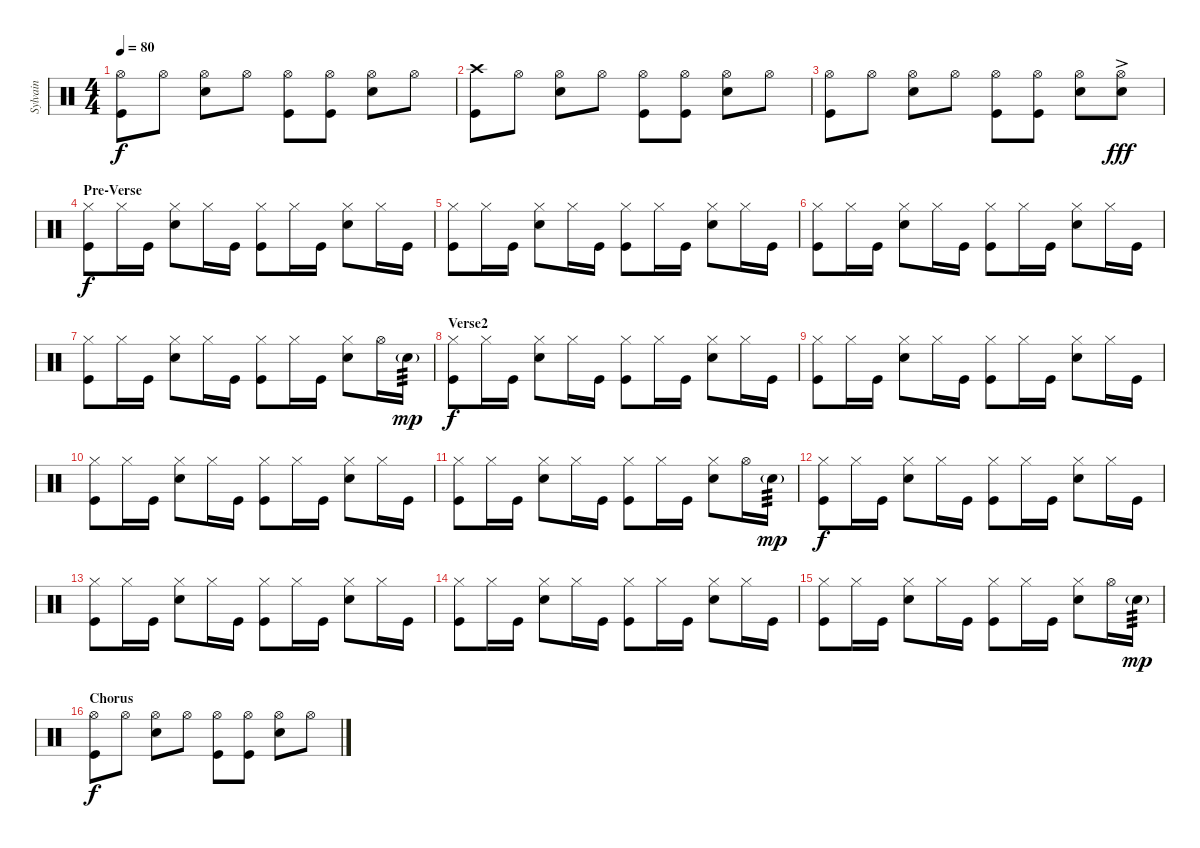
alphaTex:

\track ("Sylvain" "Sylvain") {instrument percussion}
\staff {score}
\articulation defaults
\ts (4 4)
\tempo 80
\clef neutral
\ks c
("Hi-Hat (open)" "Kick (hit)").8{dy f} "Hi-Hat (open)".8 ("Hi-Hat (open)" "Electric Snare (hit)").8 "Hi-Hat (open)".8 ("Hi-Hat (open)" "Kick (hit)").8 ("Hi-Hat (open)" "Kick (hit)").8 ("Hi-Hat (open)" "Electric Snare (hit)").8 "Hi-Hat (open)".8 |
("Crash high (hit)" "Kick (hit)").8 "Hi-Hat (open)".8 ("Hi-Hat (open)" "Electric Snare (hit)").8 "Hi-Hat (open)".8 ("Hi-Hat (open)" "Kick (hit)").8 ("Hi-Hat (open)" "Kick (hit)").8 ("Hi-Hat (open)" "Electric Snare (hit)").8 "Hi-Hat (open)".8 |
("Hi-Hat (open)" "Kick (hit)").8 "Hi-Hat (open)".8 ("Hi-Hat (open)" "Electric Snare (hit)").8 "Hi-Hat (open)".8 ("Hi-Hat (open)" "Kick (hit)").8 ("Hi-Hat (open)" "Kick (hit)").8 ("Hi-Hat (open)" "Electric Snare (hit)").8 ("Hi-Hat (open)" "Electric Snare (hit)"{ac}).8{dy fff} |
\section ("" "Pre-Verse")
("Hi-Hat (closed)" "Kick (hit)").8{dy f} "Hi-Hat (closed)".16 "Kick (hit)".16 ("Hi-Hat (closed)" "Electric Snare (hit)").8 "Hi-Hat (closed)".16 "Kick (hit)".16 ("Hi-Hat (closed)" "Kick (hit)").8 "Hi-Hat (closed)".16 "Kick (hit)".16 ("Hi-Hat (closed)" "Electric Snare (hit)").8 "Hi-Hat (closed)".16 "Kick (hit)".16 |
("Hi-Hat (closed)" "Kick (hit)").8 "Hi-Hat (closed)".16 "Kick (hit)".16 ("Hi-Hat (closed)" "Electric Snare (hit)").8 "Hi-Hat (closed)".16 "Kick (hit)".16 ("Hi-Hat (closed)" "Kick (hit)").8 "Hi-Hat (closed)".16 "Kick (hit)".16 ("Hi-Hat (closed)" "Electric Snare (hit)").8 "Hi-Hat (closed)".16 "Kick (hit)".16 |
("Hi-Hat (closed)" "Kick (hit)").8 "Hi-Hat (closed)".16 "Kick (hit)".16 ("Hi-Hat (closed)" "Electric Snare (hit)").8 "Hi-Hat (closed)".16 "Kick (hit)".16 ("Hi-Hat (closed)" "Kick (hit)").8 "Hi-Hat (closed)".16 "Kick (hit)".16 ("Hi-Hat (closed)" "Electric Snare (hit)").8 "Hi-Hat (closed)".16 "Kick (hit)".16 |
("Hi-Hat (closed)" "Kick (hit)").8 "Hi-Hat (closed)".16 "Kick (hit)".16 ("Hi-Hat (closed)" "Electric Snare (hit)").8 "Hi-Hat (closed)".16 "Kick (hit)".16 ("Hi-Hat (closed)" "Kick (hit)").8 "Hi-Hat (closed)".16 "Kick (hit)".16 ("Hi-Hat (closed)" "Electric Snare (hit)").8 "Hi-Hat (open)".16 "Electric Snare (hit)"{g}.16{tp 3 dy mp} |
\section ("" "Verse2")
("Hi-Hat (closed)" "Kick (hit)").8{dy f} "Hi-Hat (closed)".16 "Kick (hit)".16 ("Hi-Hat (closed)" "Electric Snare (hit)").8 "Hi-Hat (closed)".16 "Kick (hit)".16 ("Hi-Hat (closed)" "Kick (hit)").8 "Hi-Hat (closed)".16 "Kick (hit)".16 ("Hi-Hat (closed)" "Electric Snare (hit)").8 "Hi-Hat (closed)".16 "Kick (hit)".16 |
("Hi-Hat (closed)" "Kick (hit)").8 "Hi-Hat (closed)".16 "Kick (hit)".16 ("Hi-Hat (closed)" "Electric Snare (hit)").8 "Hi-Hat (closed)".16 "Kick (hit)".16 ("Hi-Hat (closed)" "Kick (hit)").8 "Hi-Hat (closed)".16 "Kick (hit)".16 ("Hi-Hat (closed)" "Electric Snare (hit)").8 "Hi-Hat (closed)".16 "Kick (hit)".16 |
("Hi-Hat (closed)" "Kick (hit)").8 "Hi-Hat (closed)".16 "Kick (hit)".16 ("Hi-Hat (closed)" "Electric Snare (hit)").8 "Hi-Hat (closed)".16 "Kick (hit)".16 ("Hi-Hat (closed)" "Kick (hit)").8 "Hi-Hat (closed)".16 "Kick (hit)".16 ("Hi-Hat (closed)" "Electric Snare (hit)").8 "Hi-Hat (closed)".16 "Kick (hit)".16 |
("Hi-Hat (closed)" "Kick (hit)").8 "Hi-Hat (closed)".16 "Kick (hit)".16 ("Hi-Hat (closed)" "Electric Snare (hit)").8 "Hi-Hat (closed)".16 "Kick (hit)".16 ("Hi-Hat (closed)" "Kick (hit)").8 "Hi-Hat (closed)".16 "Kick (hit)".16 ("Hi-Hat (closed)" "Electric Snare (hit)").8 "Hi-Hat (open)".16 "Electric Snare (hit)"{g}.16{tp 3 dy mp} |
("Hi-Hat (closed)" "Kick (hit)").8{dy f} "Hi-Hat (closed)".16 "Kick (hit)".16 ("Hi-Hat (closed)" "Electric Snare (hit)").8 "Hi-Hat (closed)".16 "Kick (hit)".16 ("Hi-Hat (closed)" "Kick (hit)").8 "Hi-Hat (closed)".16 "Kick (hit)".16 ("Hi-Hat (closed)" "Electric Snare (hit)").8 "Hi-Hat (closed)".16 "Kick (hit)".16 |
("Hi-Hat (closed)" "Kick (hit)").8 "Hi-Hat (closed)".16 "Kick (hit)".16 ("Hi-Hat (closed)" "Electric Snare (hit)").8 "Hi-Hat (closed)".16 "Kick (hit)".16 ("Hi-Hat (closed)" "Kick (hit)").8 "Hi-Hat (closed)".16 "Kick (hit)".16 ("Hi-Hat (closed)" "Electric Snare (hit)").8 "Hi-Hat (closed)".16 "Kick (hit)".16 |
("Hi-Hat (closed)" "Kick (hit)").8 "Hi-Hat (closed)".16 "Kick (hit)".16 ("Hi-Hat (closed)" "Electric Snare (hit)").8 "Hi-Hat (closed)".16 "Kick (hit)".16 ("Hi-Hat (closed)" "Kick (hit)").8 "Hi-Hat (closed)".16 "Kick (hit)".16 ("Hi-Hat (closed)" "Electric Snare (hit)").8 "Hi-Hat (closed)".16 "Kick (hit)".16 |
("Hi-Hat (closed)" "Kick (hit)").8 "Hi-Hat (closed)".16 "Kick (hit)".16 ("Hi-Hat (closed)" "Electric Snare (hit)").8 "Hi-Hat (closed)".16 "Kick (hit)".16 ("Hi-Hat (closed)" "Kick (hit)").8 "Hi-Hat (closed)".16 "Kick (hit)".16 ("Hi-Hat (closed)" "Electric Snare (hit)").8 "Hi-Hat (open)".16 "Electric Snare (hit)"{g}.16{tp 3 dy mp} |
\section ("" "Chorus")
("Hi-Hat (open)" "Kick (hit)").8{dy f} "Hi-Hat (open)".8 ("Hi-Hat (open)" "Electric Snare (hit)").8 "Hi-Hat (open)".8 ("Hi-Hat (open)" "Kick (hit)").8 ("Hi-Hat (open)" "Kick (hit)").8 ("Hi-Hat (open)" "Electric Snare (hit)").8 "Hi-Hat (open)".8
